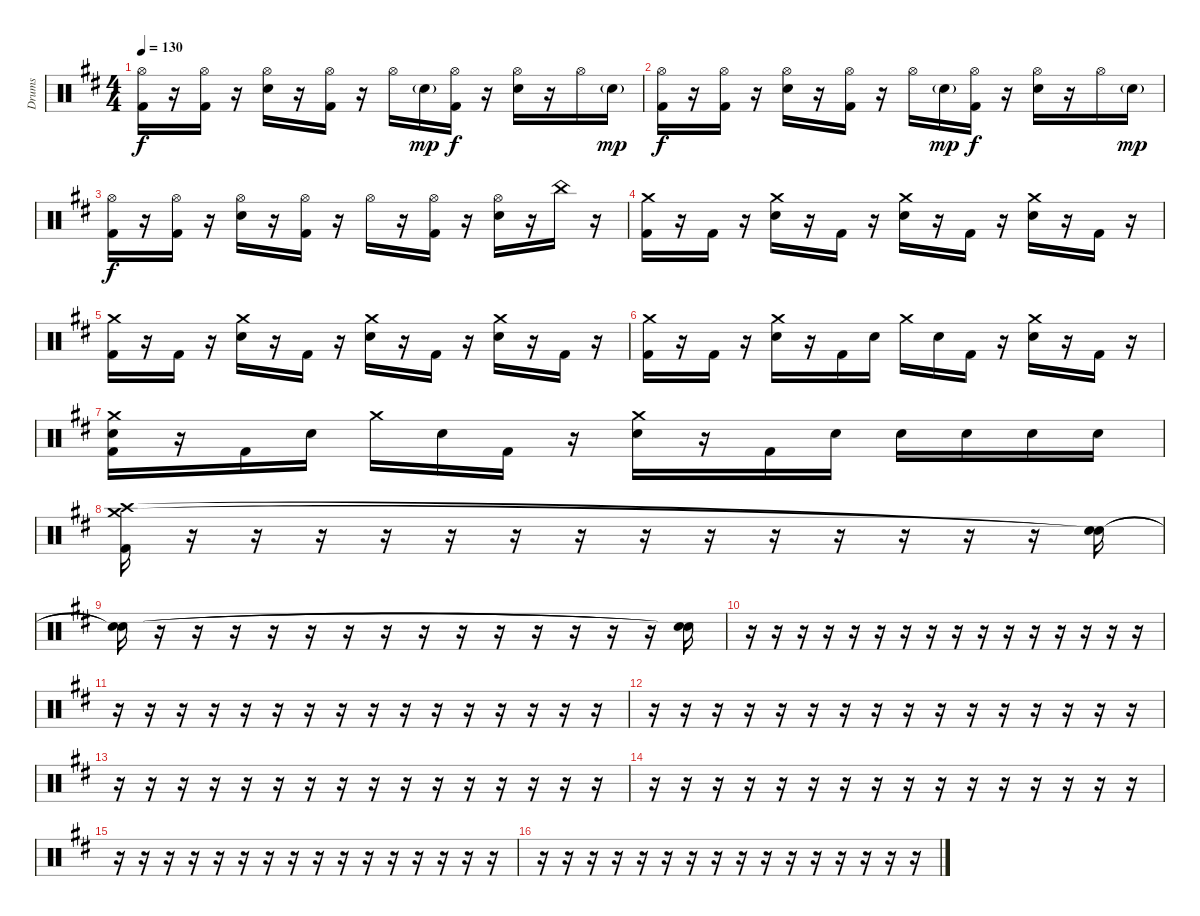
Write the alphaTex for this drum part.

\track ("Drums" "Drums") {instrument percussion}
\staff {score}
\articulation defaults
\ts (4 4)
\tempo 130
\clef neutral
\ks d
("Hi-Hat (open)" "Kick (hit) 2").16{dy f} r.16 ("Hi-Hat (open)" "Kick (hit) 2").16 r.16 ("Hi-Hat (open)" "Electric Snare (hit)").16 r.16 ("Hi-Hat (open)" "Kick (hit) 2").16 r.16 "Hi-Hat (open)".16 "Electric Snare (hit)"{g}.16{dy mp} ("Hi-Hat (open)" "Kick (hit) 2").16{dy f} r.16 ("Hi-Hat (open)" "Electric Snare (hit)").16 r.16 "Hi-Hat (open)".16 "Electric Snare (hit)"{g}.16{dy mp} |
("Hi-Hat (open)" "Kick (hit) 2").16{dy f} r.16 ("Hi-Hat (open)" "Kick (hit) 2").16 r.16 ("Hi-Hat (open)" "Electric Snare (hit)").16 r.16 ("Hi-Hat (open)" "Kick (hit) 2").16 r.16 "Hi-Hat (open)".16 "Electric Snare (hit)"{g}.16{dy mp} ("Hi-Hat (open)" "Kick (hit) 2").16{dy f} r.16 ("Hi-Hat (open)" "Electric Snare (hit)").16 r.16 "Hi-Hat (open)".16 "Electric Snare (hit)"{g}.16{dy mp} |
("Hi-Hat (open)" "Kick (hit) 2").16{dy f} r.16 ("Hi-Hat (open)" "Kick (hit) 2").16 r.16 ("Hi-Hat (open)" "Electric Snare (hit)").16 r.16 ("Hi-Hat (open)" "Kick (hit) 2").16 r.16 "Hi-Hat (open)".16 r.16 ("Hi-Hat (open)" "Kick (hit) 2").16 r.16 ("Hi-Hat (open)" "Electric Snare (hit)").16 r.16 "China (hit)".16 r.16 |
("Crash medium (hit)" "Kick (hit) 2").16 r.16 "Kick (hit) 2".16 r.16 ("Crash medium (hit)" "Electric Snare (hit)").16 r.16 "Kick (hit) 2".16 r.16 ("Crash medium (hit)" "Electric Snare (hit)").16 r.16 "Kick (hit) 2".16 r.16 ("Crash medium (hit)" "Electric Snare (hit)").16 r.16 "Kick (hit) 2".16 r.16 |
("Crash medium (hit)" "Kick (hit) 2").16 r.16 "Kick (hit) 2".16 r.16 ("Crash medium (hit)" "Electric Snare (hit)").16 r.16 "Kick (hit) 2".16 r.16 ("Crash medium (hit)" "Electric Snare (hit)").16 r.16 "Kick (hit) 2".16 r.16 ("Crash medium (hit)" "Electric Snare (hit)").16 r.16 "Kick (hit) 2".16 r.16 |
("Crash medium (hit)" "Kick (hit) 2").16 r.16 "Kick (hit) 2".16 r.16 ("Crash medium (hit)" "Electric Snare (hit)").16 r.16 "Kick (hit) 2".16 "Electric Snare (hit)".16 "Crash medium (hit)".16 "Electric Snare (hit)".16 "Kick (hit) 2".16 r.16 ("Crash medium (hit)" "Electric Snare (hit)").16 r.16 "Kick (hit) 2".16 r.16 |
("Crash medium (hit)" "Electric Snare (hit)" "Kick (hit) 2").16 r.16 "Kick (hit) 2".16 "Electric Snare (hit)".16 "Crash medium (hit)".16 "Electric Snare (hit)".16 "Kick (hit) 2".16 r.16 ("Crash medium (hit)" "Electric Snare (hit)").16 r.16 "Kick (hit) 2".16 "Electric Snare (hit)".16 "Electric Snare (hit)".16 "Electric Snare (hit)".16 "Electric Snare (hit)".16 "Electric Snare (hit)".16 |
("Crash high (hit)" "Crash medium (hit)" "Kick (hit) 2").16 r.16 r.16 r.16 r.16 r.16 r.16 r.16 r.16 r.16 r.16 r.16 r.16 r.16 r.16 ("Snare (hit)"{t} "Snare (hit)"{t}).16 |
("Snare (hit)"{t} "Snare (hit)"{t}).16 r.16 r.16 r.16 r.16 r.16 r.16 r.16 r.16 r.16 r.16 r.16 r.16 r.16 r.16 ("Snare (hit)"{t} "Snare (hit)"{t}).16 |
r.16 r.16 r.16 r.16 r.16 r.16 r.16 r.16 r.16 r.16 r.16 r.16 r.16 r.16 r.16 r.16 |
r.16 r.16 r.16 r.16 r.16 r.16 r.16 r.16 r.16 r.16 r.16 r.16 r.16 r.16 r.16 r.16 |
r.16 r.16 r.16 r.16 r.16 r.16 r.16 r.16 r.16 r.16 r.16 r.16 r.16 r.16 r.16 r.16 |
r.16 r.16 r.16 r.16 r.16 r.16 r.16 r.16 r.16 r.16 r.16 r.16 r.16 r.16 r.16 r.16 |
r.16 r.16 r.16 r.16 r.16 r.16 r.16 r.16 r.16 r.16 r.16 r.16 r.16 r.16 r.16 r.16 |
r.16 r.16 r.16 r.16 r.16 r.16 r.16 r.16 r.16 r.16 r.16 r.16 r.16 r.16 r.16 r.16 |
r.16 r.16 r.16 r.16 r.16 r.16 r.16 r.16 r.16 r.16 r.16 r.16 r.16 r.16 r.16 r.16
